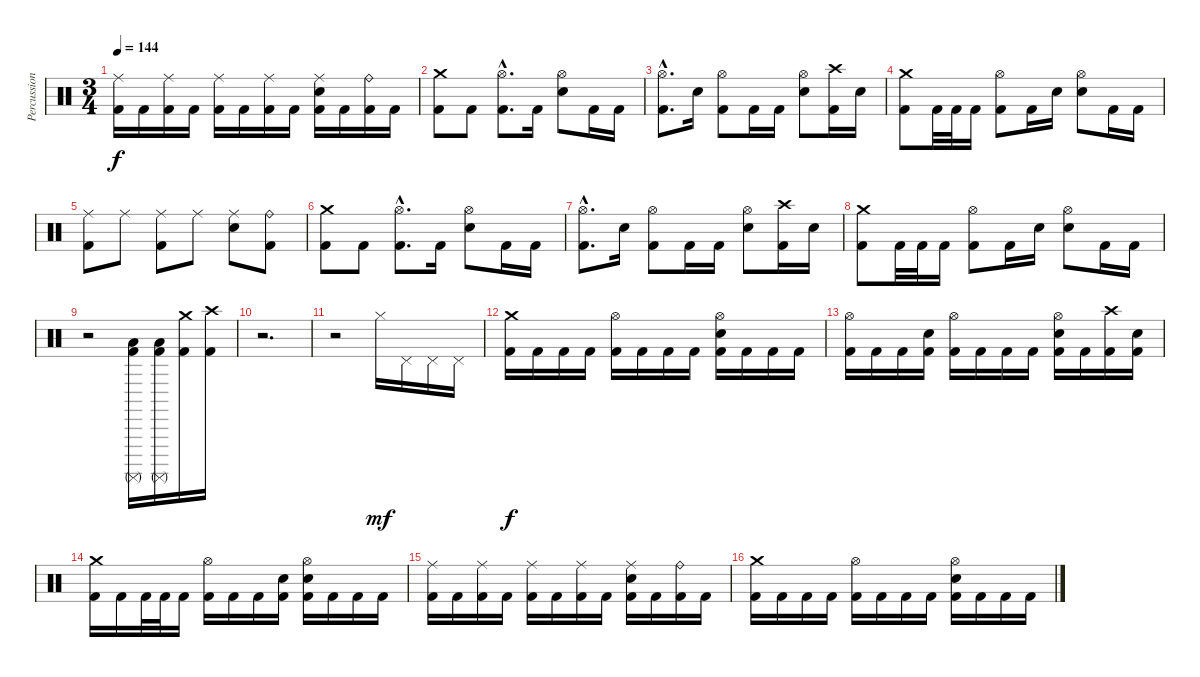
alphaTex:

\track ("Percussion" "Percussion") {instrument percussion}
\staff {score}
\articulation defaults
\ts (3 4)
\tempo 144
\clef neutral
\ks c
("Ride (middle)" "Kick (hit) 2").16{dy f} "Kick (hit) 2".16 ("Ride (middle)" "Kick (hit) 2").16 "Kick (hit) 2".16 ("Ride (middle)" "Kick (hit) 2").16 "Kick (hit) 2".16 ("Ride (middle)" "Kick (hit) 2").16 "Kick (hit) 2".16 ("Ride (middle)" "Electric Snare (hit)" "Kick (hit) 2").16 "Kick (hit) 2".16 ("Ride (bell)" "Kick (hit) 2").16 "Kick (hit) 2".16 |
("Crash medium (hit)" "Kick (hit) 2").8 "Kick (hit) 2".8 ("Hi-Hat (open)"{hac} "Kick (hit) 2"{hac}).8{d} "Kick (hit) 2".16 ("Hi-Hat (open)" "Electric Snare (hit)").8 "Kick (hit) 2".16 "Kick (hit) 2".16 |
("Hi-Hat (open)"{hac} "Kick (hit) 2"{hac}).8{d} "Electric Snare (hit)".16 ("Hi-Hat (open)" "Kick (hit) 2").8 "Kick (hit) 2".16 "Kick (hit) 2".16 ("Hi-Hat (open)" "Electric Snare (hit)").8 ("Crash high (hit)" "Kick (hit) 2").16 "Electric Snare (hit)".16 |
("Crash medium (hit)" "Kick (hit) 2").8 "Kick (hit) 2".32 "Kick (hit) 2".32 "Kick (hit) 2".16 ("Hi-Hat (open)" "Kick (hit) 2").8 "Kick (hit) 2".16 "Electric Snare (hit)".16 ("Hi-Hat (open)" "Electric Snare (hit)").8 "Kick (hit) 2".16 "Kick (hit) 2".16 |
("Ride (middle)" "Kick (hit) 2").8 "Ride (middle)".8 ("Ride (middle)" "Kick (hit) 2").8 "Ride (middle)".8 ("Ride (middle)" "Electric Snare (hit)").8 ("Ride (bell)" "Kick (hit) 2").8 |
("Crash medium (hit)" "Kick (hit) 2").8 "Kick (hit) 2".8 ("Hi-Hat (open)"{hac} "Kick (hit) 2"{hac}).8{d} "Kick (hit) 2".16 ("Hi-Hat (open)" "Electric Snare (hit)").8 "Kick (hit) 2".16 "Kick (hit) 2".16 |
("Hi-Hat (open)"{hac} "Kick (hit) 2"{hac}).8{d} "Electric Snare (hit)".16 ("Hi-Hat (open)" "Kick (hit) 2").8 "Kick (hit) 2".16 "Kick (hit) 2".16 ("Hi-Hat (open)" "Electric Snare (hit)").8 ("Crash high (hit)" "Kick (hit) 2").16 "Electric Snare (hit)".16 |
("Crash medium (hit)" "Kick (hit) 2").8 "Kick (hit) 2".32 "Kick (hit) 2".32 "Kick (hit) 2".16 ("Hi-Hat (open)" "Kick (hit) 2").8 "Kick (hit) 2".16 "Electric Snare (hit)".16 ("Hi-Hat (open)" "Electric Snare (hit)").8 "Kick (hit) 2".16 "Kick (hit) 2".16 |
r.2 ("Surdo (mute)" "Low Tom (hit)" "Kick (hit) 2").16 ("Surdo (mute)" "Low Tom (hit)" "Kick (hit) 2").16 ("Crash medium (hit)" "Kick (hit) 2").16 ("Crash high (hit)" "Kick (hit) 2").16 |
r.2{d} |
r.2 "Hi-Hat (closed)".16{dy mf} "Pedal Hi-Hat (hit)".16 "Pedal Hi-Hat (hit)".16 "Pedal Hi-Hat (hit)".16 |
("Crash medium (hit)" "Kick (hit) 2").16{dy f} "Kick (hit) 2".16 "Kick (hit) 2".16 "Kick (hit) 2".16 ("Hi-Hat (open)" "Kick (hit) 2").16 "Kick (hit) 2".16 "Kick (hit) 2".16 "Kick (hit) 2".16 ("Hi-Hat (open)" "Electric Snare (hit)" "Kick (hit) 2").16 "Kick (hit) 2".16 "Kick (hit) 2".16 "Kick (hit) 2".16 |
("Hi-Hat (open)" "Kick (hit) 2").16 "Kick (hit) 2".16 "Kick (hit) 2".16 ("Electric Snare (hit)" "Kick (hit) 2").16 ("Hi-Hat (open)" "Kick (hit) 2").16 "Kick (hit) 2".16 "Kick (hit) 2".16 "Kick (hit) 2".16 ("Hi-Hat (open)" "Electric Snare (hit)" "Kick (hit) 2").16 "Kick (hit) 2".16 ("Crash high (hit)" "Kick (hit) 2").16 ("Electric Snare (hit)" "Kick (hit) 2").16 |
("Crash medium (hit)" "Kick (hit) 2").16 "Kick (hit) 2".16 "Kick (hit) 2".32 "Kick (hit) 2".32 "Kick (hit) 2".16 ("Hi-Hat (open)" "Kick (hit) 2").16 "Kick (hit) 2".16 "Kick (hit) 2".16 ("Electric Snare (hit)" "Kick (hit) 2").16 ("Hi-Hat (open)" "Electric Snare (hit)" "Kick (hit) 2").16 "Kick (hit) 2".16 "Kick (hit) 2".16 "Kick (hit) 2".16 |
("Ride (middle)" "Kick (hit) 2").16 "Kick (hit) 2".16 ("Ride (middle)" "Kick (hit) 2").16 "Kick (hit) 2".16 ("Ride (middle)" "Kick (hit) 2").16 "Kick (hit) 2".16 ("Ride (middle)" "Kick (hit) 2").16 "Kick (hit) 2".16 ("Ride (middle)" "Electric Snare (hit)" "Kick (hit) 2").16 "Kick (hit) 2".16 ("Ride (bell)" "Kick (hit) 2").16 "Kick (hit) 2".16 |
("Crash medium (hit)" "Kick (hit) 2").16 "Kick (hit) 2".16 "Kick (hit) 2".16 "Kick (hit) 2".16 ("Hi-Hat (open)" "Kick (hit) 2").16 "Kick (hit) 2".16 "Kick (hit) 2".16 "Kick (hit) 2".16 ("Hi-Hat (open)" "Electric Snare (hit)" "Kick (hit) 2").16 "Kick (hit) 2".16 "Kick (hit) 2".16 "Kick (hit) 2".16
